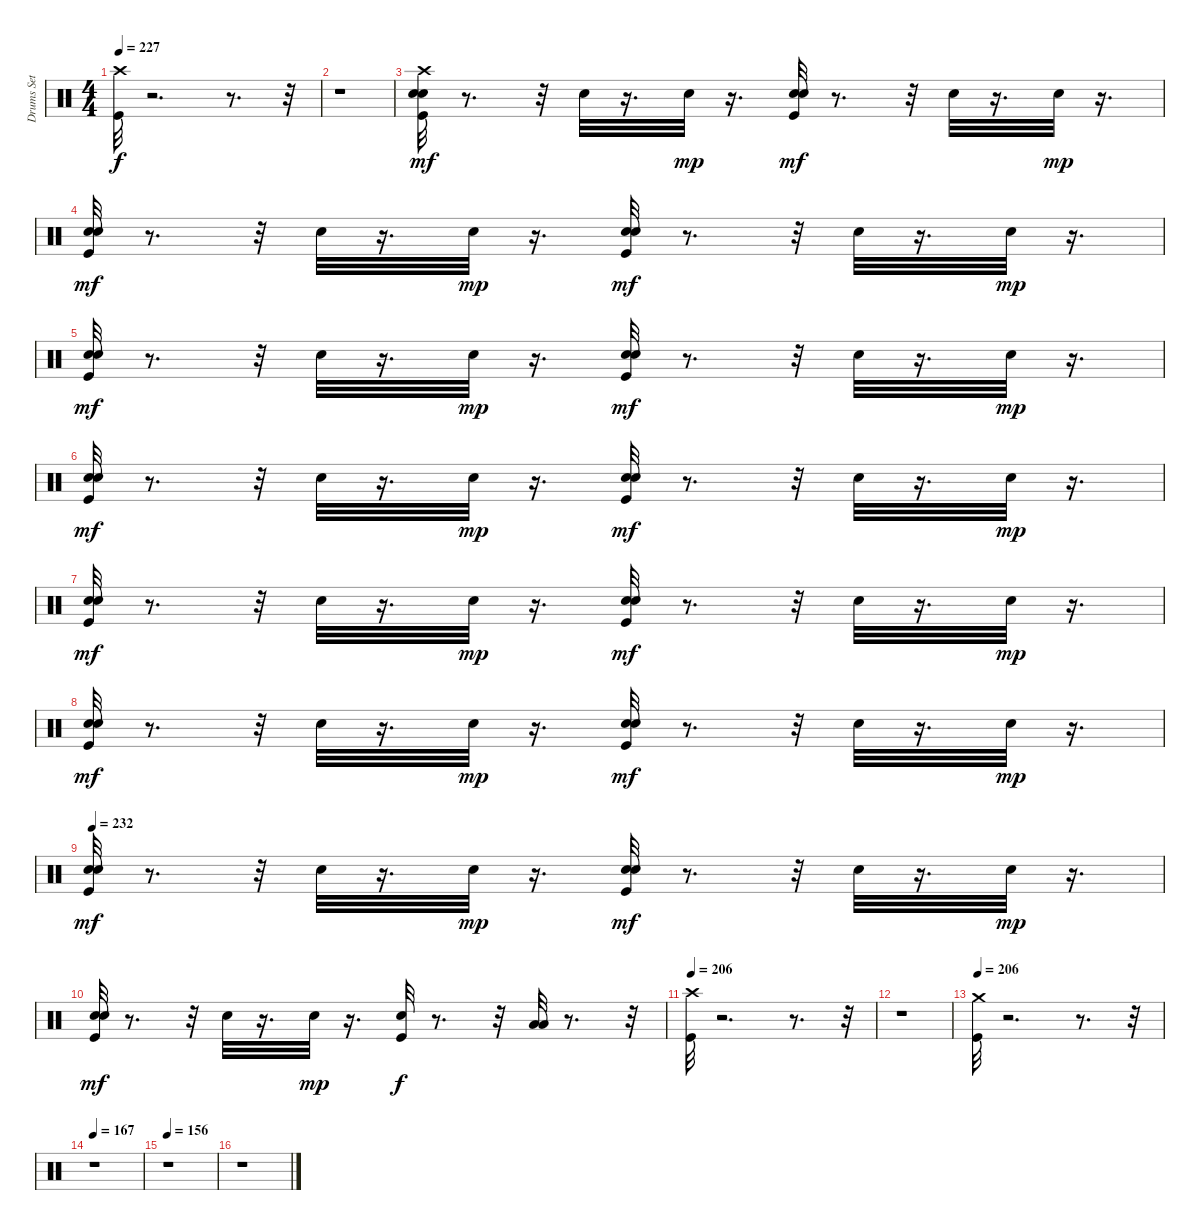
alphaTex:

\track ("Drums Set" "Drums Set") {instrument percussion}
\staff {score}
\articulation defaults
\ts (4 4)
\tempo 227
\clef neutral
\ks c
("Crash high (hit)" "Kick (hit)").32{dy f} r.2{d} r.8{d} r.32 |
r.1 |
("Snare (hit) 2" "Electric Snare (hit)" "Crash high (hit)" "Kick (hit)").32{dy mf} r.8{d} r.32 "Snare (hit) 2".32 r.16{d} "Snare (hit) 2".32{dy mp} r.16{d} ("Kick (hit)" "Electric Snare (hit)" "Snare (hit) 2").32{dy mf} r.8{d} r.32 "Snare (hit) 2".32 r.16{d} "Snare (hit) 2".32{dy mp} r.16{d} |
("Snare (hit) 2" "Electric Snare (hit)" "Kick (hit)").32{dy mf} r.8{d} r.32 "Snare (hit) 2".32 r.16{d} "Snare (hit) 2".32{dy mp} r.16{d} ("Kick (hit)" "Electric Snare (hit)" "Snare (hit) 2").32{dy mf} r.8{d} r.32 "Snare (hit) 2".32 r.16{d} "Snare (hit) 2".32{dy mp} r.16{d} |
("Snare (hit) 2" "Electric Snare (hit)" "Kick (hit)").32{dy mf} r.8{d} r.32 "Snare (hit) 2".32 r.16{d} "Snare (hit) 2".32{dy mp} r.16{d} ("Kick (hit)" "Electric Snare (hit)" "Snare (hit) 2").32{dy mf} r.8{d} r.32 "Snare (hit) 2".32 r.16{d} "Snare (hit) 2".32{dy mp} r.16{d} |
("Snare (hit) 2" "Electric Snare (hit)" "Kick (hit)").32{dy mf} r.8{d} r.32 "Snare (hit) 2".32 r.16{d} "Snare (hit) 2".32{dy mp} r.16{d} ("Kick (hit)" "Electric Snare (hit)" "Snare (hit) 2").32{dy mf} r.8{d} r.32 "Snare (hit) 2".32 r.16{d} "Snare (hit) 2".32{dy mp} r.16{d} |
("Snare (hit) 2" "Electric Snare (hit)" "Kick (hit)").32{dy mf} r.8{d} r.32 "Snare (hit) 2".32 r.16{d} "Snare (hit) 2".32{dy mp} r.16{d} ("Kick (hit)" "Electric Snare (hit)" "Snare (hit) 2").32{dy mf} r.8{d} r.32 "Snare (hit) 2".32 r.16{d} "Snare (hit) 2".32{dy mp} r.16{d} |
("Snare (hit) 2" "Electric Snare (hit)" "Kick (hit)").32{dy mf} r.8{d} r.32 "Snare (hit) 2".32 r.16{d} "Snare (hit) 2".32{dy mp} r.16{d} ("Kick (hit)" "Electric Snare (hit)" "Snare (hit) 2").32{dy mf} r.8{d} r.32 "Snare (hit) 2".32 r.16{d} "Snare (hit) 2".32{dy mp} r.16{d} |
\tempo 232
("Snare (hit) 2" "Electric Snare (hit)" "Kick (hit)").32{dy mf} r.8{d} r.32 "Snare (hit) 2".32 r.16{d} "Snare (hit) 2".32{dy mp} r.16{d} ("Kick (hit)" "Electric Snare (hit)" "Snare (hit) 2").32{dy mf} r.8{d} r.32 "Snare (hit) 2".32 r.16{d} "Snare (hit) 2".32{dy mp} r.16{d} |
("Kick (hit)" "Electric Snare (hit)" "Snare (hit) 2").32{dy mf} r.8{d} r.32 "Snare (hit) 2".32 r.16{d} "Snare (hit) 2".32{dy mp} r.16{d} ("Kick (hit)" "Snare (hit) 2").32{dy f} r.8{d} r.32 ("Low Tom (hit)" "Low Floor Tom (hit)").32 r.8{d} r.32 |
\tempo 206
("Crash high (hit)" "Kick (hit)").32 r.2{d} r.8{d} r.32 |
r.1 |
\tempo 206
("Crash medium (hit)" "Kick (hit)").32 r.2{d} r.8{d} r.32 |
\tempo 167
r.1 |
\tempo 156
r.1 |
r.1
